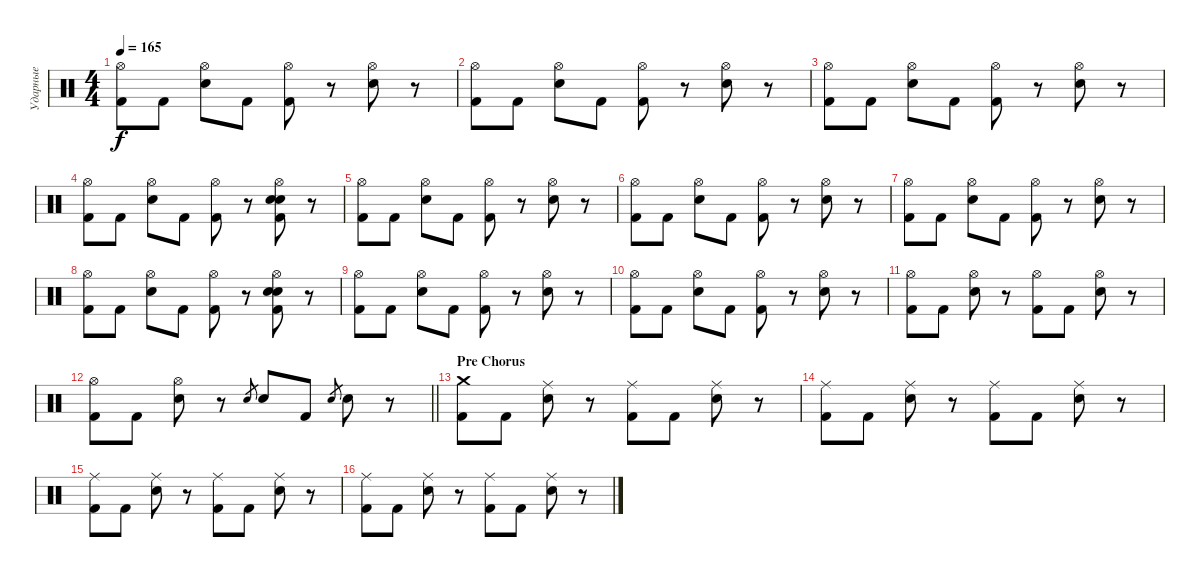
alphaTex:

\track ("Ударные" "Ударные") {instrument percussion}
\staff {score}
\articulation defaults
\ts (4 4)
\tempo 165
\clef neutral
\ks c
("Hi-Hat (open)" "Kick (hit) 2").8{dy f} "Kick (hit) 2".8 ("Hi-Hat (open)" "Electric Snare (hit)").8 "Kick (hit) 2".8 ("Hi-Hat (open)" "Kick (hit) 2").8 r.8 ("Hi-Hat (open)" "Electric Snare (hit)").8 r.8 |
("Hi-Hat (open)" "Kick (hit) 2").8 "Kick (hit) 2".8 ("Hi-Hat (open)" "Electric Snare (hit)").8 "Kick (hit) 2".8 ("Hi-Hat (open)" "Kick (hit) 2").8 r.8 ("Hi-Hat (open)" "Electric Snare (hit)").8 r.8 |
("Hi-Hat (open)" "Kick (hit) 2").8 "Kick (hit) 2".8 ("Hi-Hat (open)" "Electric Snare (hit)").8 "Kick (hit) 2".8 ("Hi-Hat (open)" "Kick (hit) 2").8 r.8 ("Hi-Hat (open)" "Electric Snare (hit)").8 r.8 |
("Hi-Hat (open)" "Kick (hit) 2").8 "Kick (hit) 2".8 ("Hi-Hat (open)" "Electric Snare (hit)").8 "Kick (hit) 2".8 ("Hi-Hat (open)" "Kick (hit) 2").8 r.8 ("Hi-Hat (open)" "Electric Snare (hit)" "Electric Snare (hit)" "Kick (hit) 2").8 r.8 |
("Hi-Hat (open)" "Kick (hit) 2").8 "Kick (hit) 2".8 ("Hi-Hat (open)" "Electric Snare (hit)").8 "Kick (hit) 2".8 ("Hi-Hat (open)" "Kick (hit) 2").8 r.8 ("Hi-Hat (open)" "Electric Snare (hit)").8 r.8 |
("Hi-Hat (open)" "Kick (hit) 2").8 "Kick (hit) 2".8 ("Hi-Hat (open)" "Electric Snare (hit)").8 "Kick (hit) 2".8 ("Hi-Hat (open)" "Kick (hit) 2").8 r.8 ("Hi-Hat (open)" "Electric Snare (hit)").8 r.8 |
("Hi-Hat (open)" "Kick (hit) 2").8 "Kick (hit) 2".8 ("Hi-Hat (open)" "Electric Snare (hit)").8 "Kick (hit) 2".8 ("Hi-Hat (open)" "Kick (hit) 2").8 r.8 ("Hi-Hat (open)" "Electric Snare (hit)").8 r.8 |
("Hi-Hat (open)" "Kick (hit) 2").8 "Kick (hit) 2".8 ("Hi-Hat (open)" "Electric Snare (hit)").8 "Kick (hit) 2".8 ("Hi-Hat (open)" "Kick (hit) 2").8 r.8 ("Hi-Hat (open)" "Electric Snare (hit)" "Electric Snare (hit)" "Kick (hit) 2").8 r.8 |
("Hi-Hat (open)" "Kick (hit) 2").8 "Kick (hit) 2".8 ("Hi-Hat (open)" "Electric Snare (hit)").8 "Kick (hit) 2".8 ("Hi-Hat (open)" "Kick (hit) 2").8 r.8 ("Hi-Hat (open)" "Electric Snare (hit)").8 r.8 |
("Hi-Hat (open)" "Kick (hit) 2").8 "Kick (hit) 2".8 ("Hi-Hat (open)" "Electric Snare (hit)").8 "Kick (hit) 2".8 ("Hi-Hat (open)" "Kick (hit) 2").8 r.8 ("Hi-Hat (open)" "Electric Snare (hit)").8 r.8 |
("Hi-Hat (open)" "Kick (hit) 2").8 "Kick (hit) 2".8 ("Hi-Hat (open)" "Electric Snare (hit)").8 r.8 ("Hi-Hat (open)" "Kick (hit) 2").8 "Kick (hit) 2".8 ("Hi-Hat (open)" "Electric Snare (hit)").8 r.8 |
\barLineRight lightlight
("Hi-Hat (open)" "Kick (hit) 2").8 "Kick (hit) 2".8 ("Hi-Hat (open)" "Electric Snare (hit)").8 r.8 "Electric Snare (hit)".8{gr} "Electric Snare (hit)".8 "Kick (hit) 2".8 "Electric Snare (hit)".8{gr} "Electric Snare (hit)".8 r.8 |
\section ("" "Pre Chorus")
("Crash medium (hit)" "Kick (hit) 2").8 "Kick (hit) 2".8 ("Ride (middle)" "Electric Snare (hit)").8 r.8 ("Ride (middle)" "Kick (hit) 2").8 "Kick (hit) 2".8 ("Ride (middle)" "Electric Snare (hit)").8 r.8 |
("Ride (middle)" "Kick (hit) 2").8 "Kick (hit) 2".8 ("Ride (middle)" "Electric Snare (hit)").8 r.8 ("Ride (middle)" "Kick (hit) 2").8 "Kick (hit) 2".8 ("Ride (middle)" "Electric Snare (hit)").8 r.8 |
("Ride (middle)" "Kick (hit) 2").8 "Kick (hit) 2".8 ("Ride (middle)" "Electric Snare (hit)").8 r.8 ("Ride (middle)" "Kick (hit) 2").8 "Kick (hit) 2".8 ("Ride (middle)" "Electric Snare (hit)").8 r.8 |
("Ride (middle)" "Kick (hit) 2").8 "Kick (hit) 2".8 ("Ride (middle)" "Electric Snare (hit)").8 r.8 ("Ride (middle)" "Kick (hit) 2").8 "Kick (hit) 2".8 ("Ride (middle)" "Electric Snare (hit)").8 r.8
